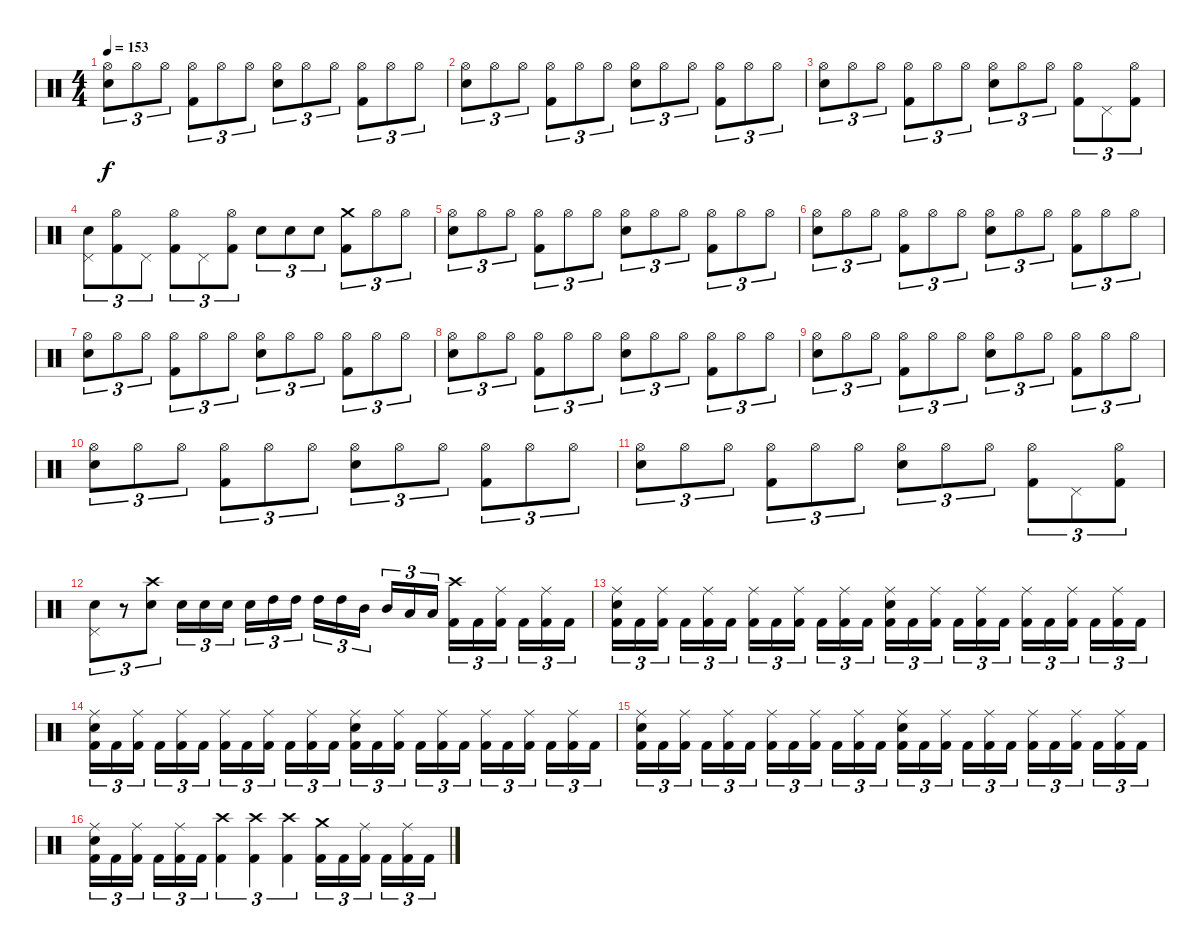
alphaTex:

\track "" {instrument percussion}
\staff {score}
\articulation defaults
\ts (4 4)
\tempo 153
\clef neutral
\ks c
("Hi-Hat (open)" "Electric Snare (hit)").8{tu (3 2) dy f} "Hi-Hat (open)".8{tu (3 2)} "Hi-Hat (open)".8{tu (3 2)} ("Hi-Hat (open)" "Kick (hit) 2").8{tu (3 2)} "Hi-Hat (open)".8{tu (3 2)} "Hi-Hat (open)".8{tu (3 2)} ("Hi-Hat (open)" "Electric Snare (hit)").8{tu (3 2)} "Hi-Hat (open)".8{tu (3 2)} "Hi-Hat (open)".8{tu (3 2)} ("Hi-Hat (open)" "Kick (hit) 2").8{tu (3 2)} "Hi-Hat (open)".8{tu (3 2)} "Hi-Hat (open)".8{tu (3 2)} |
("Hi-Hat (open)" "Electric Snare (hit)").8{tu (3 2)} "Hi-Hat (open)".8{tu (3 2)} "Hi-Hat (open)".8{tu (3 2)} ("Hi-Hat (open)" "Kick (hit) 2").8{tu (3 2)} "Hi-Hat (open)".8{tu (3 2)} "Hi-Hat (open)".8{tu (3 2)} ("Hi-Hat (open)" "Electric Snare (hit)").8{tu (3 2)} "Hi-Hat (open)".8{tu (3 2)} "Hi-Hat (open)".8{tu (3 2)} ("Hi-Hat (open)" "Kick (hit) 2").8{tu (3 2)} "Hi-Hat (open)".8{tu (3 2)} "Hi-Hat (open)".8{tu (3 2)} |
("Hi-Hat (open)" "Electric Snare (hit)").8{tu (3 2)} "Hi-Hat (open)".8{tu (3 2)} "Hi-Hat (open)".8{tu (3 2)} ("Hi-Hat (open)" "Kick (hit) 2").8{tu (3 2)} "Hi-Hat (open)".8{tu (3 2)} "Hi-Hat (open)".8{tu (3 2)} ("Hi-Hat (open)" "Electric Snare (hit)").8{tu (3 2)} "Hi-Hat (open)".8{tu (3 2)} "Hi-Hat (open)".8{tu (3 2)} ("Hi-Hat (open)" "Kick (hit) 2").8{tu (3 2)} "Pedal Hi-Hat (hit)".8{tu (3 2)} ("Hi-Hat (open)" "Kick (hit) 2").8{tu (3 2)} |
("Pedal Hi-Hat (hit)" "Electric Snare (hit)").8{tu (3 2)} ("Hi-Hat (open)" "Kick (hit) 2").8{tu (3 2)} "Pedal Hi-Hat (hit)".8{tu (3 2)} ("Hi-Hat (open)" "Kick (hit) 2").8{tu (3 2)} "Pedal Hi-Hat (hit)".8{tu (3 2)} ("Hi-Hat (open)" "Kick (hit) 2").8{tu (3 2)} "Electric Snare (hit)".8{tu (3 2)} "Electric Snare (hit)".8{tu (3 2)} "Electric Snare (hit)".8{tu (3 2)} ("Crash medium (hit)" "Kick (hit) 2").8{tu (3 2)} "Hi-Hat (open)".8{tu (3 2)} "Hi-Hat (open)".8{tu (3 2)} |
("Hi-Hat (open)" "Electric Snare (hit)").8{tu (3 2)} "Hi-Hat (open)".8{tu (3 2)} "Hi-Hat (open)".8{tu (3 2)} ("Hi-Hat (open)" "Kick (hit) 2").8{tu (3 2)} "Hi-Hat (open)".8{tu (3 2)} "Hi-Hat (open)".8{tu (3 2)} ("Hi-Hat (open)" "Electric Snare (hit)").8{tu (3 2)} "Hi-Hat (open)".8{tu (3 2)} "Hi-Hat (open)".8{tu (3 2)} ("Hi-Hat (open)" "Kick (hit) 2").8{tu (3 2)} "Hi-Hat (open)".8{tu (3 2)} "Hi-Hat (open)".8{tu (3 2)} |
("Hi-Hat (open)" "Electric Snare (hit)").8{tu (3 2)} "Hi-Hat (open)".8{tu (3 2)} "Hi-Hat (open)".8{tu (3 2)} ("Hi-Hat (open)" "Kick (hit) 2").8{tu (3 2)} "Hi-Hat (open)".8{tu (3 2)} "Hi-Hat (open)".8{tu (3 2)} ("Hi-Hat (open)" "Electric Snare (hit)").8{tu (3 2)} "Hi-Hat (open)".8{tu (3 2)} "Hi-Hat (open)".8{tu (3 2)} ("Hi-Hat (open)" "Kick (hit) 2").8{tu (3 2)} "Hi-Hat (open)".8{tu (3 2)} "Hi-Hat (open)".8{tu (3 2)} |
("Hi-Hat (open)" "Electric Snare (hit)").8{tu (3 2)} "Hi-Hat (open)".8{tu (3 2)} "Hi-Hat (open)".8{tu (3 2)} ("Hi-Hat (open)" "Kick (hit) 2").8{tu (3 2)} "Hi-Hat (open)".8{tu (3 2)} "Hi-Hat (open)".8{tu (3 2)} ("Hi-Hat (open)" "Electric Snare (hit)").8{tu (3 2)} "Hi-Hat (open)".8{tu (3 2)} "Hi-Hat (open)".8{tu (3 2)} ("Hi-Hat (open)" "Kick (hit) 2").8{tu (3 2)} "Hi-Hat (open)".8{tu (3 2)} "Hi-Hat (open)".8{tu (3 2)} |
("Hi-Hat (open)" "Electric Snare (hit)").8{tu (3 2)} "Hi-Hat (open)".8{tu (3 2)} "Hi-Hat (open)".8{tu (3 2)} ("Hi-Hat (open)" "Kick (hit) 2").8{tu (3 2)} "Hi-Hat (open)".8{tu (3 2)} "Hi-Hat (open)".8{tu (3 2)} ("Hi-Hat (open)" "Electric Snare (hit)").8{tu (3 2)} "Hi-Hat (open)".8{tu (3 2)} "Hi-Hat (open)".8{tu (3 2)} ("Hi-Hat (open)" "Kick (hit) 2").8{tu (3 2)} "Hi-Hat (open)".8{tu (3 2)} "Hi-Hat (open)".8{tu (3 2)} |
("Hi-Hat (open)" "Electric Snare (hit)").8{tu (3 2)} "Hi-Hat (open)".8{tu (3 2)} "Hi-Hat (open)".8{tu (3 2)} ("Hi-Hat (open)" "Kick (hit) 2").8{tu (3 2)} "Hi-Hat (open)".8{tu (3 2)} "Hi-Hat (open)".8{tu (3 2)} ("Hi-Hat (open)" "Electric Snare (hit)").8{tu (3 2)} "Hi-Hat (open)".8{tu (3 2)} "Hi-Hat (open)".8{tu (3 2)} ("Hi-Hat (open)" "Kick (hit) 2").8{tu (3 2)} "Hi-Hat (open)".8{tu (3 2)} "Hi-Hat (open)".8{tu (3 2)} |
("Hi-Hat (open)" "Electric Snare (hit)").8{tu (3 2)} "Hi-Hat (open)".8{tu (3 2)} "Hi-Hat (open)".8{tu (3 2)} ("Hi-Hat (open)" "Kick (hit) 2").8{tu (3 2)} "Hi-Hat (open)".8{tu (3 2)} "Hi-Hat (open)".8{tu (3 2)} ("Hi-Hat (open)" "Electric Snare (hit)").8{tu (3 2)} "Hi-Hat (open)".8{tu (3 2)} "Hi-Hat (open)".8{tu (3 2)} ("Hi-Hat (open)" "Kick (hit) 2").8{tu (3 2)} "Hi-Hat (open)".8{tu (3 2)} "Hi-Hat (open)".8{tu (3 2)} |
("Hi-Hat (open)" "Electric Snare (hit)").8{tu (3 2)} "Hi-Hat (open)".8{tu (3 2)} "Hi-Hat (open)".8{tu (3 2)} ("Hi-Hat (open)" "Kick (hit) 2").8{tu (3 2)} "Hi-Hat (open)".8{tu (3 2)} "Hi-Hat (open)".8{tu (3 2)} ("Hi-Hat (open)" "Electric Snare (hit)").8{tu (3 2)} "Hi-Hat (open)".8{tu (3 2)} "Hi-Hat (open)".8{tu (3 2)} ("Hi-Hat (open)" "Kick (hit) 2").8{tu (3 2)} "Pedal Hi-Hat (hit)".8{tu (3 2)} ("Hi-Hat (open)" "Kick (hit) 2").8{tu (3 2)} |
("Pedal Hi-Hat (hit)" "Electric Snare (hit)").8{tu (3 2)} r.8{tu (3 2)} ("Crash high (hit)" "Electric Snare (hit)").8{tu (3 2)} "Electric Snare (hit)".16{tu (3 2)} "Electric Snare (hit)".16{tu (3 2)} "Electric Snare (hit)".16{tu (3 2)} "Electric Snare (hit)".16{tu (3 2)} "High Tom (hit)".16{tu (3 2)} "High Tom (hit)".16{tu (3 2)} "High Tom (hit)".16{tu (3 2)} "High Tom (hit)".16{tu (3 2)} "Mid Tom (hit)".16{tu (3 2)} "Mid Tom (hit)".16{tu (3 2)} "Low Tom (hit)".16{tu (3 2)} "Low Tom (hit)".16{tu (3 2)} ("Crash high (hit)" "Kick (hit) 2").16{tu (3 2)} "Kick (hit) 2".16{tu (3 2)} ("Ride (middle)" "Kick (hit) 2").16{tu (3 2)} "Kick (hit) 2".16{tu (3 2)} ("Ride (middle)" "Kick (hit) 2").16{tu (3 2)} "Kick (hit) 2".16{tu (3 2)} |
("Ride (middle)" "Electric Snare (hit)" "Kick (hit) 2").16{tu (3 2)} "Kick (hit) 2".16{tu (3 2)} ("Ride (middle)" "Kick (hit) 2").16{tu (3 2)} "Kick (hit) 2".16{tu (3 2)} ("Ride (middle)" "Kick (hit) 2").16{tu (3 2)} "Kick (hit) 2".16{tu (3 2)} ("Ride (middle)" "Kick (hit) 2").16{tu (3 2)} "Kick (hit) 2".16{tu (3 2)} ("Ride (middle)" "Kick (hit) 2").16{tu (3 2)} "Kick (hit) 2".16{tu (3 2)} ("Ride (middle)" "Kick (hit) 2").16{tu (3 2)} "Kick (hit) 2".16{tu (3 2)} ("Ride (middle)" "Electric Snare (hit)" "Kick (hit) 2").16{tu (3 2)} "Kick (hit) 2".16{tu (3 2)} ("Ride (middle)" "Kick (hit) 2").16{tu (3 2)} "Kick (hit) 2".16{tu (3 2)} ("Ride (middle)" "Kick (hit) 2").16{tu (3 2)} "Kick (hit) 2".16{tu (3 2)} ("Ride (middle)" "Kick (hit) 2").16{tu (3 2)} "Kick (hit) 2".16{tu (3 2)} ("Ride (middle)" "Kick (hit) 2").16{tu (3 2)} "Kick (hit) 2".16{tu (3 2)} ("Ride (middle)" "Kick (hit) 2").16{tu (3 2)} "Kick (hit) 2".16{tu (3 2)} |
("Ride (middle)" "Electric Snare (hit)" "Kick (hit) 2").16{tu (3 2)} "Kick (hit) 2".16{tu (3 2)} ("Ride (middle)" "Kick (hit) 2").16{tu (3 2)} "Kick (hit) 2".16{tu (3 2)} ("Ride (middle)" "Kick (hit) 2").16{tu (3 2)} "Kick (hit) 2".16{tu (3 2)} ("Ride (middle)" "Kick (hit) 2").16{tu (3 2)} "Kick (hit) 2".16{tu (3 2)} ("Ride (middle)" "Kick (hit) 2").16{tu (3 2)} "Kick (hit) 2".16{tu (3 2)} ("Ride (middle)" "Kick (hit) 2").16{tu (3 2)} "Kick (hit) 2".16{tu (3 2)} ("Ride (middle)" "Electric Snare (hit)" "Kick (hit) 2").16{tu (3 2)} "Kick (hit) 2".16{tu (3 2)} ("Ride (middle)" "Kick (hit) 2").16{tu (3 2)} "Kick (hit) 2".16{tu (3 2)} ("Ride (middle)" "Kick (hit) 2").16{tu (3 2)} "Kick (hit) 2".16{tu (3 2)} ("Ride (middle)" "Kick (hit) 2").16{tu (3 2)} "Kick (hit) 2".16{tu (3 2)} ("Ride (middle)" "Kick (hit) 2").16{tu (3 2)} "Kick (hit) 2".16{tu (3 2)} ("Ride (middle)" "Kick (hit) 2").16{tu (3 2)} "Kick (hit) 2".16{tu (3 2)} |
("Ride (middle)" "Electric Snare (hit)" "Kick (hit) 2").16{tu (3 2)} "Kick (hit) 2".16{tu (3 2)} ("Ride (middle)" "Kick (hit) 2").16{tu (3 2)} "Kick (hit) 2".16{tu (3 2)} ("Ride (middle)" "Kick (hit) 2").16{tu (3 2)} "Kick (hit) 2".16{tu (3 2)} ("Ride (middle)" "Kick (hit) 2").16{tu (3 2)} "Kick (hit) 2".16{tu (3 2)} ("Ride (middle)" "Kick (hit) 2").16{tu (3 2)} "Kick (hit) 2".16{tu (3 2)} ("Ride (middle)" "Kick (hit) 2").16{tu (3 2)} "Kick (hit) 2".16{tu (3 2)} ("Ride (middle)" "Electric Snare (hit)" "Kick (hit) 2").16{tu (3 2)} "Kick (hit) 2".16{tu (3 2)} ("Ride (middle)" "Kick (hit) 2").16{tu (3 2)} "Kick (hit) 2".16{tu (3 2)} ("Ride (middle)" "Kick (hit) 2").16{tu (3 2)} "Kick (hit) 2".16{tu (3 2)} ("Ride (middle)" "Kick (hit) 2").16{tu (3 2)} "Kick (hit) 2".16{tu (3 2)} ("Ride (middle)" "Kick (hit) 2").16{tu (3 2)} "Kick (hit) 2".16{tu (3 2)} ("Ride (middle)" "Kick (hit) 2").16{tu (3 2)} "Kick (hit) 2".16{tu (3 2)} |
("Ride (middle)" "Electric Snare (hit)" "Kick (hit) 2").16{tu (3 2)} "Kick (hit) 2".16{tu (3 2)} ("Ride (middle)" "Kick (hit) 2").16{tu (3 2)} "Kick (hit) 2".16{tu (3 2)} ("Ride (middle)" "Kick (hit) 2").16{tu (3 2)} "Kick (hit) 2".16{tu (3 2)} ("Crash high (hit)" "Kick (hit) 2").4{tu (3 2)} ("Crash high (hit)" "Kick (hit) 2").4{tu (3 2)} ("Crash high (hit)" "Kick (hit) 2").4{tu (3 2)} ("Crash medium (hit)" "Kick (hit) 2").16{tu (3 2)} "Kick (hit) 2".16{tu (3 2)} ("Ride (middle)" "Kick (hit) 2").16{tu (3 2)} "Kick (hit) 2".16{tu (3 2)} ("Ride (middle)" "Kick (hit) 2").16{tu (3 2)} "Kick (hit) 2".16{tu (3 2)}
